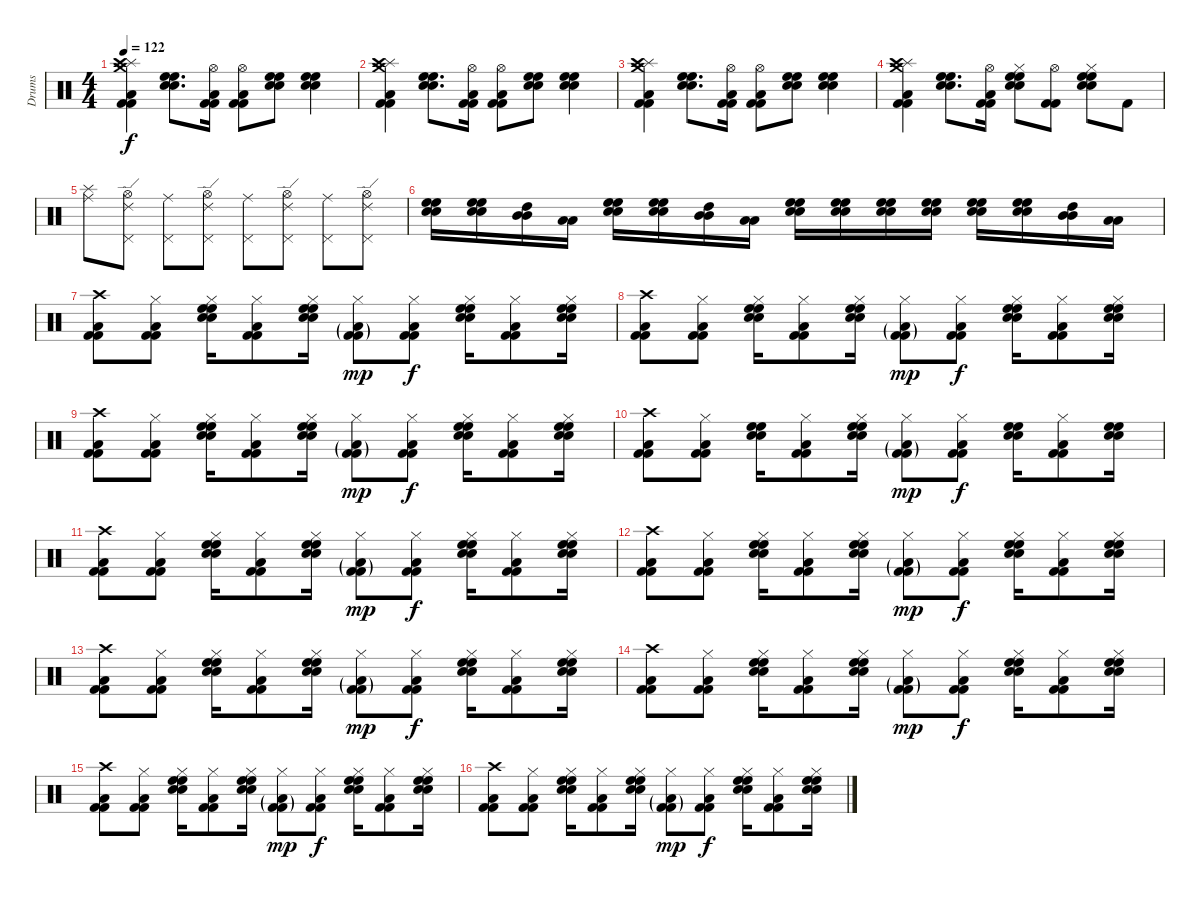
\track ("Drums" "Drums") {instrument percussion}
\staff {score}
\articulation defaults
\ts (4 4)
\tempo 122
\clef neutral
\ks c
("Crash medium (hit)" "Splash (hit)" "Crash high (hit)" "Low Floor Tom (hit)" "Kick (hit) 2" "Kick (hit) 2").4{dy f} ("Electric Snare (hit)" "High Floor Tom (hit)" "Electric Snare (hit)" "High Floor Tom (hit)").8{d} ("Hi-Hat (open)" "Low Floor Tom (hit)" "Kick (hit) 2" "Kick (hit) 2").16 ("Hi-Hat (open)" "Low Floor Tom (hit)" "Kick (hit) 2" "Kick (hit) 2").8 ("Electric Snare (hit)" "High Floor Tom (hit)" "Electric Snare (hit)" "High Floor Tom (hit)").8 ("Electric Snare (hit)" "High Floor Tom (hit)" "Electric Snare (hit)" "High Floor Tom (hit)").4 |
("Crash medium (hit)" "Splash (hit)" "Crash high (hit)" "Low Floor Tom (hit)" "Kick (hit) 2" "Kick (hit) 2").4 ("Electric Snare (hit)" "High Floor Tom (hit)" "Electric Snare (hit)" "High Floor Tom (hit)").8{d} ("Hi-Hat (open)" "Low Floor Tom (hit)" "Kick (hit) 2" "Kick (hit) 2").16 ("Hi-Hat (open)" "Low Floor Tom (hit)" "Kick (hit) 2" "Kick (hit) 2").8 ("Electric Snare (hit)" "High Floor Tom (hit)" "Electric Snare (hit)" "High Floor Tom (hit)").8 ("Electric Snare (hit)" "High Floor Tom (hit)" "Electric Snare (hit)" "High Floor Tom (hit)").4 |
("Crash medium (hit)" "Splash (hit)" "Crash high (hit)" "Low Floor Tom (hit)" "Kick (hit) 2" "Kick (hit) 2").4 ("Electric Snare (hit)" "High Floor Tom (hit)" "Electric Snare (hit)" "High Floor Tom (hit)").8{d} ("Hi-Hat (open)" "Low Floor Tom (hit)" "Kick (hit) 2" "Kick (hit) 2").16 ("Hi-Hat (open)" "Low Floor Tom (hit)" "Kick (hit) 2" "Kick (hit) 2").8 ("Electric Snare (hit)" "High Floor Tom (hit)" "Electric Snare (hit)" "High Floor Tom (hit)").8 ("Electric Snare (hit)" "High Floor Tom (hit)" "Electric Snare (hit)" "High Floor Tom (hit)").4 |
("Crash medium (hit)" "Splash (hit)" "Crash high (hit)" "Low Floor Tom (hit)" "Kick (hit) 2" "Kick (hit) 2").4 ("Electric Snare (hit)" "High Floor Tom (hit)" "Electric Snare (hit)" "High Floor Tom (hit)").8{d} ("Hi-Hat (open)" "Low Floor Tom (hit)" "Kick (hit) 2" "Kick (hit) 2").16 ("Hi-Hat (closed)" "Electric Snare (hit)" "High Floor Tom (hit)" "Electric Snare (hit)" "High Floor Tom (hit)").8 ("Hi-Hat (open)" "Kick (hit) 2" "Kick (hit) 2").8 ("Hi-Hat (closed)" "Electric Snare (hit)" "High Floor Tom (hit)" "Electric Snare (hit)" "High Floor Tom (hit)").8 "Kick (hit) 2".8 |
("Splash (hit)" "Ride (middle)").8 ("Ride (edge) 2" "Hi-Hat (open)" "Pedal Hi-Hat (hit)").8 ("Pedal Hi-Hat (hit)" "Ride (middle)").8 ("Ride (edge) 2" "Hi-Hat (open)" "Pedal Hi-Hat (hit)").8 ("Pedal Hi-Hat (hit)" "Ride (middle)").8 ("Ride (edge) 2" "Hi-Hat (open)" "Pedal Hi-Hat (hit)").8 ("Pedal Hi-Hat (hit)" "Ride (middle)").8 ("Ride (edge) 2" "Hi-Hat (open)" "Pedal Hi-Hat (hit)").8 |
("High Floor Tom (hit)" "Electric Snare (hit)" "High Floor Tom (hit)" "Electric Snare (hit)").16 ("High Floor Tom (hit)" "Electric Snare (hit)" "High Floor Tom (hit)" "Electric Snare (hit)").16 ("Mid Tom (hit)" "High Tom (hit)" "Mid Tom (hit)").16 ("Low Tom (hit)" "Low Tom (hit)").16 ("High Floor Tom (hit)" "Electric Snare (hit)" "High Floor Tom (hit)" "Electric Snare (hit)").16 ("High Floor Tom (hit)" "Electric Snare (hit)" "High Floor Tom (hit)" "Electric Snare (hit)").16 ("Mid Tom (hit)" "High Tom (hit)" "Mid Tom (hit)").16 ("Low Tom (hit)" "Low Tom (hit)").16 ("High Floor Tom (hit)" "Electric Snare (hit)" "High Floor Tom (hit)" "Electric Snare (hit)").16 ("High Floor Tom (hit)" "Electric Snare (hit)" "High Floor Tom (hit)" "Electric Snare (hit)").16 ("High Floor Tom (hit)" "Electric Snare (hit)" "High Floor Tom (hit)" "Electric Snare (hit)").16 ("High Floor Tom (hit)" "Electric Snare (hit)" "High Floor Tom (hit)" "Electric Snare (hit)").16 ("High Floor Tom (hit)" "Electric Snare (hit)" "High Floor Tom (hit)" "Electric Snare (hit)").16 ("High Floor Tom (hit)" "Electric Snare (hit)" "High Floor Tom (hit)" "Electric Snare (hit)").16 ("Mid Tom (hit)" "High Tom (hit)" "Mid Tom (hit)").16 ("Low Tom (hit)" "Low Tom (hit)").16 |
("Crash high (hit)" "Low Floor Tom (hit)"{x} "Kick (hit) 2" "Kick (hit) 2").8 ("Hi-Hat (closed)" "Low Floor Tom (hit)"{x} "Kick (hit) 2" "Kick (hit) 2").8 ("Hi-Hat (closed)" "High Floor Tom (hit)" "Electric Snare (hit)" "High Floor Tom (hit)" "Electric Snare (hit)").16 ("Hi-Hat (closed)" "Low Floor Tom (hit)"{x} "Kick (hit) 2" "Kick (hit) 2").8 ("Hi-Hat (closed)" "High Floor Tom (hit)" "Electric Snare (hit)" "High Floor Tom (hit)" "Electric Snare (hit)").16 ("Hi-Hat (closed)" "Low Floor Tom (hit)"{g} "Kick (hit) 2"{g} "Kick (hit) 2"{g}).8{dy mp} ("Hi-Hat (closed)" "Low Floor Tom (hit)"{x} "Kick (hit) 2" "Kick (hit) 2").8{dy f} ("Hi-Hat (closed)" "High Floor Tom (hit)" "Electric Snare (hit)" "High Floor Tom (hit)" "Electric Snare (hit)").16 ("Hi-Hat (closed)" "Low Floor Tom (hit)"{x} "Kick (hit) 2" "Kick (hit) 2").8 ("Hi-Hat (closed)" "High Floor Tom (hit)" "Electric Snare (hit)" "High Floor Tom (hit)" "Electric Snare (hit)").16 |
("Crash high (hit)" "Low Floor Tom (hit)"{x} "Kick (hit) 2" "Kick (hit) 2").8 ("Hi-Hat (closed)" "Low Floor Tom (hit)"{x} "Kick (hit) 2" "Kick (hit) 2").8 ("Hi-Hat (closed)" "High Floor Tom (hit)" "Electric Snare (hit)" "High Floor Tom (hit)" "Electric Snare (hit)").16 ("Hi-Hat (closed)" "Low Floor Tom (hit)"{x} "Kick (hit) 2" "Kick (hit) 2").8 ("Hi-Hat (closed)" "High Floor Tom (hit)" "Electric Snare (hit)" "High Floor Tom (hit)" "Electric Snare (hit)").16 ("Hi-Hat (closed)" "Low Floor Tom (hit)"{g} "Kick (hit) 2"{g} "Kick (hit) 2"{g}).8{dy mp} ("Hi-Hat (closed)" "Low Floor Tom (hit)"{x} "Kick (hit) 2" "Kick (hit) 2").8{dy f} ("Hi-Hat (closed)" "High Floor Tom (hit)" "Electric Snare (hit)" "High Floor Tom (hit)" "Electric Snare (hit)").16 ("Hi-Hat (closed)" "Low Floor Tom (hit)"{x} "Kick (hit) 2" "Kick (hit) 2").8 ("Hi-Hat (closed)" "High Floor Tom (hit)" "Electric Snare (hit)" "High Floor Tom (hit)" "Electric Snare (hit)").16 |
("Crash high (hit)" "Low Floor Tom (hit)"{x} "Kick (hit) 2" "Kick (hit) 2").8 ("Hi-Hat (closed)" "Low Floor Tom (hit)"{x} "Kick (hit) 2" "Kick (hit) 2").8 ("Hi-Hat (closed)" "High Floor Tom (hit)" "Electric Snare (hit)" "High Floor Tom (hit)" "Electric Snare (hit)").16 ("Hi-Hat (closed)" "Low Floor Tom (hit)"{x} "Kick (hit) 2" "Kick (hit) 2").8 ("Hi-Hat (closed)" "High Floor Tom (hit)" "Electric Snare (hit)" "High Floor Tom (hit)" "Electric Snare (hit)").16 ("Hi-Hat (closed)" "Low Floor Tom (hit)"{g} "Kick (hit) 2"{g} "Kick (hit) 2"{g}).8{dy mp} ("Hi-Hat (closed)" "Low Floor Tom (hit)"{x} "Kick (hit) 2" "Kick (hit) 2").8{dy f} ("Hi-Hat (closed)" "High Floor Tom (hit)" "Electric Snare (hit)" "High Floor Tom (hit)" "Electric Snare (hit)").16 ("Hi-Hat (closed)" "Low Floor Tom (hit)"{x} "Kick (hit) 2" "Kick (hit) 2").8 ("Hi-Hat (closed)" "High Floor Tom (hit)" "Electric Snare (hit)" "High Floor Tom (hit)" "Electric Snare (hit)").16 |
("Crash high (hit)" "Low Floor Tom (hit)"{x} "Kick (hit) 2" "Kick (hit) 2").8 ("Hi-Hat (closed)" "Low Floor Tom (hit)"{x} "Kick (hit) 2" "Kick (hit) 2").8 ("High Floor Tom (hit)" "Electric Snare (hit)" "High Floor Tom (hit)" "Electric Snare (hit)").16 ("Hi-Hat (closed)" "Low Floor Tom (hit)"{x} "Kick (hit) 2" "Kick (hit) 2").8 ("Hi-Hat (closed)"{x} "High Floor Tom (hit)" "Electric Snare (hit)" "High Floor Tom (hit)" "Electric Snare (hit)").16 ("Hi-Hat (closed)" "Low Floor Tom (hit)"{g} "Kick (hit) 2"{g} "Kick (hit) 2"{g}).8{dy mp} ("Hi-Hat (closed)" "Low Floor Tom (hit)"{x} "Kick (hit) 2" "Kick (hit) 2").8{dy f} ("High Floor Tom (hit)" "Electric Snare (hit)" "High Floor Tom (hit)" "Electric Snare (hit)").16 ("Hi-Hat (closed)" "Low Floor Tom (hit)"{x} "Kick (hit) 2" "Kick (hit) 2").8 ("High Floor Tom (hit)" "Electric Snare (hit)" "High Floor Tom (hit)" "Electric Snare (hit)").16 |
("Crash high (hit)" "Low Floor Tom (hit)"{x} "Kick (hit) 2" "Kick (hit) 2").8 ("Hi-Hat (closed)" "Low Floor Tom (hit)"{x} "Kick (hit) 2" "Kick (hit) 2").8 ("Hi-Hat (closed)" "High Floor Tom (hit)" "Electric Snare (hit)" "High Floor Tom (hit)" "Electric Snare (hit)").16 ("Hi-Hat (closed)" "Low Floor Tom (hit)"{x} "Kick (hit) 2" "Kick (hit) 2").8 ("Hi-Hat (closed)" "High Floor Tom (hit)" "Electric Snare (hit)" "High Floor Tom (hit)" "Electric Snare (hit)").16 ("Hi-Hat (closed)" "Low Floor Tom (hit)"{g} "Kick (hit) 2"{g} "Kick (hit) 2"{g}).8{dy mp} ("Hi-Hat (closed)" "Low Floor Tom (hit)"{x} "Kick (hit) 2" "Kick (hit) 2").8{dy f} ("Hi-Hat (closed)" "High Floor Tom (hit)" "Electric Snare (hit)" "High Floor Tom (hit)" "Electric Snare (hit)").16 ("Hi-Hat (closed)" "Low Floor Tom (hit)"{x} "Kick (hit) 2" "Kick (hit) 2").8 ("Hi-Hat (closed)" "High Floor Tom (hit)" "Electric Snare (hit)" "High Floor Tom (hit)" "Electric Snare (hit)").16 |
("Crash high (hit)" "Low Floor Tom (hit)"{x} "Kick (hit) 2" "Kick (hit) 2").8 ("Hi-Hat (closed)" "Low Floor Tom (hit)"{x} "Kick (hit) 2" "Kick (hit) 2").8 ("Hi-Hat (closed)" "High Floor Tom (hit)" "Electric Snare (hit)" "High Floor Tom (hit)" "Electric Snare (hit)").16 ("Hi-Hat (closed)" "Low Floor Tom (hit)"{x} "Kick (hit) 2" "Kick (hit) 2").8 ("Hi-Hat (closed)" "High Floor Tom (hit)" "Electric Snare (hit)" "High Floor Tom (hit)" "Electric Snare (hit)").16 ("Hi-Hat (closed)" "Low Floor Tom (hit)"{g} "Kick (hit) 2"{g} "Kick (hit) 2"{g}).8{dy mp} ("Hi-Hat (closed)" "Low Floor Tom (hit)"{x} "Kick (hit) 2" "Kick (hit) 2").8{dy f} ("Hi-Hat (closed)" "High Floor Tom (hit)" "Electric Snare (hit)" "High Floor Tom (hit)" "Electric Snare (hit)").16 ("Hi-Hat (closed)" "Low Floor Tom (hit)"{x} "Kick (hit) 2" "Kick (hit) 2").8 ("Hi-Hat (closed)" "High Floor Tom (hit)" "Electric Snare (hit)" "High Floor Tom (hit)" "Electric Snare (hit)").16 |
("Crash high (hit)" "Low Floor Tom (hit)"{x} "Kick (hit) 2" "Kick (hit) 2").8 ("Hi-Hat (closed)" "Low Floor Tom (hit)"{x} "Kick (hit) 2" "Kick (hit) 2").8 ("Hi-Hat (closed)" "High Floor Tom (hit)" "Electric Snare (hit)" "High Floor Tom (hit)" "Electric Snare (hit)").16 ("Hi-Hat (closed)" "Low Floor Tom (hit)"{x} "Kick (hit) 2" "Kick (hit) 2").8 ("Hi-Hat (closed)" "High Floor Tom (hit)" "Electric Snare (hit)" "High Floor Tom (hit)" "Electric Snare (hit)").16 ("Hi-Hat (closed)" "Low Floor Tom (hit)"{g} "Kick (hit) 2"{g} "Kick (hit) 2"{g}).8{dy mp} ("Hi-Hat (closed)" "Low Floor Tom (hit)"{x} "Kick (hit) 2" "Kick (hit) 2").8{dy f} ("Hi-Hat (closed)" "High Floor Tom (hit)" "Electric Snare (hit)" "High Floor Tom (hit)" "Electric Snare (hit)").16 ("Hi-Hat (closed)" "Low Floor Tom (hit)"{x} "Kick (hit) 2" "Kick (hit) 2").8 ("Hi-Hat (closed)" "High Floor Tom (hit)" "Electric Snare (hit)" "High Floor Tom (hit)" "Electric Snare (hit)").16 |
("Crash high (hit)" "Low Floor Tom (hit)"{x} "Kick (hit) 2" "Kick (hit) 2").8 ("Hi-Hat (closed)" "Low Floor Tom (hit)"{x} "Kick (hit) 2" "Kick (hit) 2").8 ("Hi-Hat (closed)" "High Floor Tom (hit)" "Electric Snare (hit)" "High Floor Tom (hit)" "Electric Snare (hit)").16 ("Hi-Hat (closed)" "Low Floor Tom (hit)"{x} "Kick (hit) 2" "Kick (hit) 2").8 ("Hi-Hat (closed)" "High Floor Tom (hit)" "Electric Snare (hit)" "High Floor Tom (hit)" "Electric Snare (hit)").16 ("Hi-Hat (closed)" "Low Floor Tom (hit)"{g} "Kick (hit) 2"{g} "Kick (hit) 2"{g}).8{dy mp} ("Hi-Hat (closed)" "Low Floor Tom (hit)"{x} "Kick (hit) 2" "Kick (hit) 2").8{dy f} ("Hi-Hat (closed)" "High Floor Tom (hit)" "Electric Snare (hit)" "High Floor Tom (hit)" "Electric Snare (hit)").16 ("Hi-Hat (closed)" "Low Floor Tom (hit)"{x} "Kick (hit) 2" "Kick (hit) 2").8 ("Hi-Hat (closed)" "High Floor Tom (hit)" "Electric Snare (hit)" "High Floor Tom (hit)" "Electric Snare (hit)").16 |
("Crash high (hit)" "Low Floor Tom (hit)" "Kick (hit) 2" "Kick (hit) 2").8 ("Hi-Hat (closed)" "Low Floor Tom (hit)" "Kick (hit) 2" "Kick (hit) 2").8 ("Hi-Hat (closed)" "High Floor Tom (hit)" "Electric Snare (hit)" "High Floor Tom (hit)" "Electric Snare (hit)").16 ("Hi-Hat (closed)" "Low Floor Tom (hit)" "Kick (hit) 2" "Kick (hit) 2").8 ("Hi-Hat (closed)" "High Floor Tom (hit)" "Electric Snare (hit)" "High Floor Tom (hit)" "Electric Snare (hit)").16 ("Hi-Hat (closed)" "Low Floor Tom (hit)"{g} "Kick (hit) 2"{g} "Kick (hit) 2"{g}).8{dy mp} ("Hi-Hat (closed)" "Low Floor Tom (hit)" "Kick (hit) 2" "Kick (hit) 2").8{dy f} ("Hi-Hat (closed)" "High Floor Tom (hit)" "Electric Snare (hit)" "High Floor Tom (hit)" "Electric Snare (hit)").16 ("Hi-Hat (closed)" "Low Floor Tom (hit)" "Kick (hit) 2" "Kick (hit) 2").8 ("Hi-Hat (closed)" "High Floor Tom (hit)" "Electric Snare (hit)" "High Floor Tom (hit)" "Electric Snare (hit)").16 |
("Crash high (hit)" "Low Floor Tom (hit)" "Kick (hit) 2" "Kick (hit) 2").8 ("Hi-Hat (closed)" "Low Floor Tom (hit)" "Kick (hit) 2" "Kick (hit) 2").8 ("Hi-Hat (closed)" "High Floor Tom (hit)" "Electric Snare (hit)" "High Floor Tom (hit)" "Electric Snare (hit)").16 ("Hi-Hat (closed)" "Low Floor Tom (hit)" "Kick (hit) 2" "Kick (hit) 2").8 ("Hi-Hat (closed)" "High Floor Tom (hit)" "Electric Snare (hit)" "High Floor Tom (hit)" "Electric Snare (hit)").16 ("Hi-Hat (closed)" "Low Floor Tom (hit)"{g} "Kick (hit) 2"{g} "Kick (hit) 2"{g}).8{dy mp} ("Hi-Hat (closed)" "Low Floor Tom (hit)" "Kick (hit) 2" "Kick (hit) 2").8{dy f} ("Hi-Hat (closed)" "High Floor Tom (hit)" "Electric Snare (hit)" "High Floor Tom (hit)" "Electric Snare (hit)").16 ("Hi-Hat (closed)" "Low Floor Tom (hit)" "Kick (hit) 2" "Kick (hit) 2").8 ("Hi-Hat (closed)" "High Floor Tom (hit)" "Electric Snare (hit)" "High Floor Tom (hit)" "Electric Snare (hit)").16
